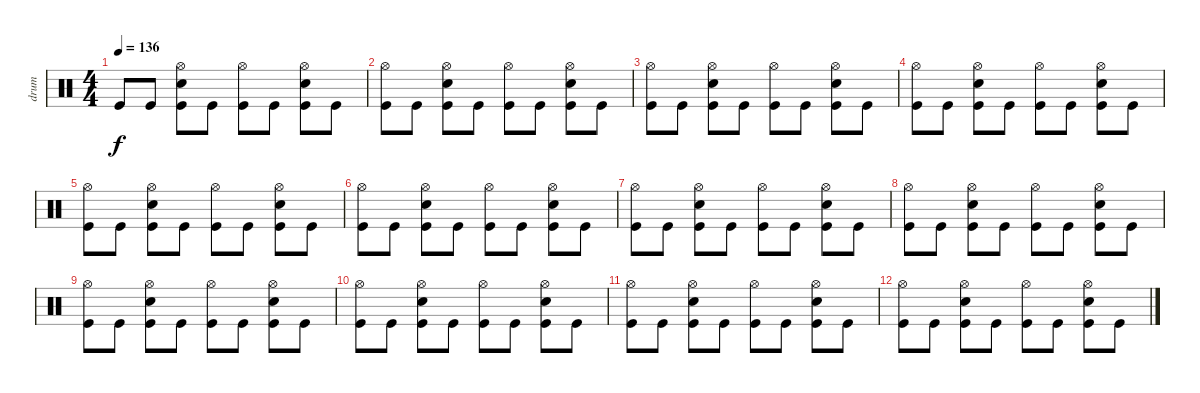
\track ("drum" "drum") {instrument percussion}
\staff {score}
\articulation defaults
\ts (4 4)
\tempo 136
\clef neutral
\ks c "Kick (hit)".8{dy f volume 13} "Kick (hit)".8
("Kick (hit)" "Electric Snare (hit)" "Hi-Hat (open)").8 "Kick (hit)".8 ("Kick (hit)" "Hi-Hat (open)").8 "Kick (hit)".8 ("Kick (hit)" "Electric Snare (hit)" "Hi-Hat (open)").8 "Kick (hit)".8 |
("Kick (hit)" "Hi-Hat (open)").8 "Kick (hit)".8 ("Kick (hit)" "Electric Snare (hit)" "Hi-Hat (open)").8 "Kick (hit)".8 ("Kick (hit)" "Hi-Hat (open)").8 "Kick (hit)".8 ("Kick (hit)" "Electric Snare (hit)" "Hi-Hat (open)").8 "Kick (hit)".8 |
("Kick (hit)" "Hi-Hat (open)").8 "Kick (hit)".8 ("Kick (hit)" "Electric Snare (hit)" "Hi-Hat (open)").8 "Kick (hit)".8 ("Kick (hit)" "Hi-Hat (open)").8 "Kick (hit)".8 ("Kick (hit)" "Electric Snare (hit)" "Hi-Hat (open)").8 "Kick (hit)".8 |
("Kick (hit)" "Hi-Hat (open)").8 "Kick (hit)".8 ("Kick (hit)" "Electric Snare (hit)" "Hi-Hat (open)").8 "Kick (hit)".8 ("Kick (hit)" "Hi-Hat (open)").8 "Kick (hit)".8 ("Kick (hit)" "Electric Snare (hit)" "Hi-Hat (open)").8 "Kick (hit)".8 |
("Kick (hit)" "Hi-Hat (open)").8{volume 10} "Kick (hit)".8 ("Kick (hit)" "Electric Snare (hit)" "Hi-Hat (open)").8 "Kick (hit)".8 ("Kick (hit)" "Hi-Hat (open)").8 "Kick (hit)".8 ("Kick (hit)" "Electric Snare (hit)" "Hi-Hat (open)").8 "Kick (hit)".8 |
("Kick (hit)" "Hi-Hat (open)").8 "Kick (hit)".8 ("Kick (hit)" "Electric Snare (hit)" "Hi-Hat (open)").8 "Kick (hit)".8 ("Kick (hit)" "Hi-Hat (open)").8 "Kick (hit)".8 ("Kick (hit)" "Electric Snare (hit)" "Hi-Hat (open)").8 "Kick (hit)".8 |
("Kick (hit)" "Hi-Hat (open)").8 "Kick (hit)".8 ("Kick (hit)" "Electric Snare (hit)" "Hi-Hat (open)").8 "Kick (hit)".8 ("Kick (hit)" "Hi-Hat (open)").8 "Kick (hit)".8 ("Kick (hit)" "Electric Snare (hit)" "Hi-Hat (open)").8 "Kick (hit)".8 |
("Kick (hit)" "Hi-Hat (open)").8 "Kick (hit)".8 ("Kick (hit)" "Electric Snare (hit)" "Hi-Hat (open)").8 "Kick (hit)".8 ("Kick (hit)" "Hi-Hat (open)").8 "Kick (hit)".8 ("Kick (hit)" "Electric Snare (hit)" "Hi-Hat (open)").8 "Kick (hit)".8 |
("Kick (hit)" "Hi-Hat (open)").8{volume 6} "Kick (hit)".8 ("Kick (hit)" "Electric Snare (hit)" "Hi-Hat (open)").8 "Kick (hit)".8 ("Kick (hit)" "Hi-Hat (open)").8 "Kick (hit)".8 ("Kick (hit)" "Electric Snare (hit)" "Hi-Hat (open)").8 "Kick (hit)".8 |
("Kick (hit)" "Hi-Hat (open)").8 "Kick (hit)".8 ("Kick (hit)" "Electric Snare (hit)" "Hi-Hat (open)").8 "Kick (hit)".8 ("Kick (hit)" "Hi-Hat (open)").8 "Kick (hit)".8 ("Kick (hit)" "Electric Snare (hit)" "Hi-Hat (open)").8 "Kick (hit)".8 |
("Kick (hit)" "Hi-Hat (open)").8 "Kick (hit)".8 ("Kick (hit)" "Electric Snare (hit)" "Hi-Hat (open)").8 "Kick (hit)".8 ("Kick (hit)" "Hi-Hat (open)").8 "Kick (hit)".8 ("Kick (hit)" "Electric Snare (hit)" "Hi-Hat (open)").8 "Kick (hit)".8 |
("Kick (hit)" "Hi-Hat (open)").8 "Kick (hit)".8 ("Kick (hit)" "Electric Snare (hit)" "Hi-Hat (open)").8 "Kick (hit)".8 ("Kick (hit)" "Hi-Hat (open)").8 "Kick (hit)".8 ("Kick (hit)" "Electric Snare (hit)" "Hi-Hat (open)").8 "Kick (hit)".8
